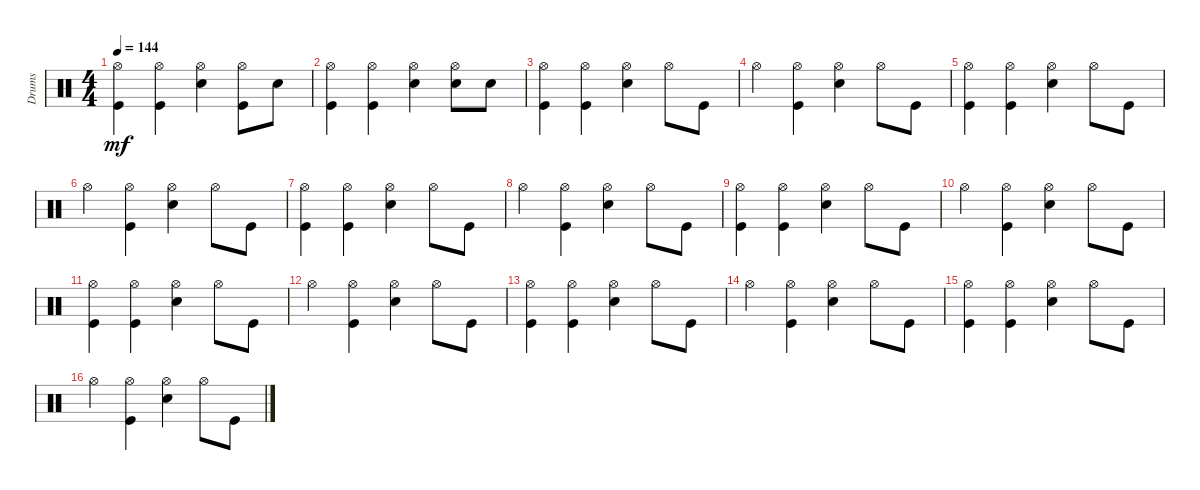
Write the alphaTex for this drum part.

\track ("Drums               " "Drums     ") {instrument percussion}
\staff {score}
\articulation defaults
\ts (4 4)
\tempo 144
\clef neutral
\ks c
("Kick (hit)" "Hi-Hat (open)").4{dy mf} ("Kick (hit)" "Hi-Hat (open)").4 ("Snare (hit) 2" "Hi-Hat (open)").4 ("Hi-Hat (open)" "Kick (hit)").8 "Snare (hit) 2".8 |
("Kick (hit)" "Hi-Hat (open)").4 ("Kick (hit)" "Hi-Hat (open)").4 ("Snare (hit) 2" "Hi-Hat (open)").4 ("Hi-Hat (open)" "Snare (hit) 2").8 "Snare (hit) 2".8 |
("Kick (hit)" "Hi-Hat (open)").4 ("Kick (hit)" "Hi-Hat (open)").4 ("Snare (hit) 2" "Hi-Hat (open)").4 "Hi-Hat (open)".8 "Kick (hit)".8 |
"Hi-Hat (open)".4 ("Hi-Hat (open)" "Kick (hit)").4 ("Snare (hit) 2" "Hi-Hat (open)").4 "Hi-Hat (open)".8 "Kick (hit)".8 |
("Kick (hit)" "Hi-Hat (open)").4 ("Kick (hit)" "Hi-Hat (open)").4 ("Snare (hit) 2" "Hi-Hat (open)").4 "Hi-Hat (open)".8 "Kick (hit)".8 |
"Hi-Hat (open)".4 ("Hi-Hat (open)" "Kick (hit)").4 ("Snare (hit) 2" "Hi-Hat (open)").4 "Hi-Hat (open)".8 "Kick (hit)".8 |
("Kick (hit)" "Hi-Hat (open)").4 ("Kick (hit)" "Hi-Hat (open)").4 ("Snare (hit) 2" "Hi-Hat (open)").4 "Hi-Hat (open)".8 "Kick (hit)".8 |
"Hi-Hat (open)".4 ("Hi-Hat (open)" "Kick (hit)").4 ("Snare (hit) 2" "Hi-Hat (open)").4 "Hi-Hat (open)".8 "Kick (hit)".8 |
("Kick (hit)" "Hi-Hat (open)").4 ("Kick (hit)" "Hi-Hat (open)").4 ("Snare (hit) 2" "Hi-Hat (open)").4 "Hi-Hat (open)".8 "Kick (hit)".8 |
"Hi-Hat (open)".4 ("Hi-Hat (open)" "Kick (hit)").4 ("Snare (hit) 2" "Hi-Hat (open)").4 "Hi-Hat (open)".8 "Kick (hit)".8 |
("Kick (hit)" "Hi-Hat (open)").4 ("Kick (hit)" "Hi-Hat (open)").4 ("Snare (hit) 2" "Hi-Hat (open)").4 "Hi-Hat (open)".8 "Kick (hit)".8 |
"Hi-Hat (open)".4 ("Hi-Hat (open)" "Kick (hit)").4 ("Snare (hit) 2" "Hi-Hat (open)").4 "Hi-Hat (open)".8 "Kick (hit)".8 |
("Kick (hit)" "Hi-Hat (open)").4 ("Kick (hit)" "Hi-Hat (open)").4 ("Snare (hit) 2" "Hi-Hat (open)").4 "Hi-Hat (open)".8 "Kick (hit)".8 |
"Hi-Hat (open)".4 ("Hi-Hat (open)" "Kick (hit)").4 ("Snare (hit) 2" "Hi-Hat (open)").4 "Hi-Hat (open)".8 "Kick (hit)".8 |
("Kick (hit)" "Hi-Hat (open)").4 ("Kick (hit)" "Hi-Hat (open)").4 ("Snare (hit) 2" "Hi-Hat (open)").4 "Hi-Hat (open)".8 "Kick (hit)".8 |
"Hi-Hat (open)".4 ("Hi-Hat (open)" "Kick (hit)").4 ("Snare (hit) 2" "Hi-Hat (open)").4 "Hi-Hat (open)".8 "Kick (hit)".8
